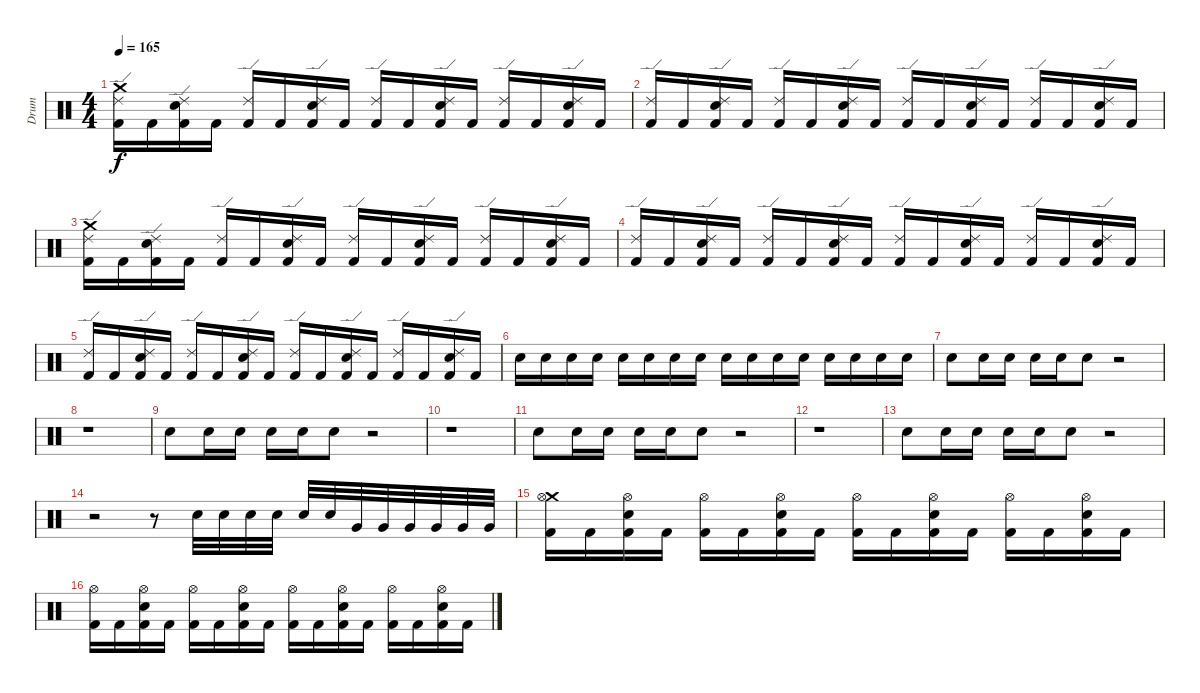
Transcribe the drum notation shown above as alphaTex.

\track ("Drum" "Drum") {instrument percussion}
\staff {score}
\articulation defaults
\ts (4 4)
\tempo 165
\clef neutral
\ks c
("Crash medium (hit)" "Ride (edge) 2" "Kick (hit) 2").16{dy f} "Kick (hit) 2".16 ("Electric Snare (hit)" "Ride (edge) 2" "Kick (hit) 2").16 "Kick (hit) 2".16 ("Ride (edge) 2" "Kick (hit) 2").16 "Kick (hit) 2".16 ("Electric Snare (hit)" "Ride (edge) 2" "Kick (hit) 2").16 "Kick (hit) 2".16 ("Ride (edge) 2" "Kick (hit) 2").16 "Kick (hit) 2".16 ("Electric Snare (hit)" "Ride (edge) 2" "Kick (hit) 2").16 "Kick (hit) 2".16 ("Ride (edge) 2" "Kick (hit) 2").16 "Kick (hit) 2".16 ("Electric Snare (hit)" "Ride (edge) 2" "Kick (hit) 2").16 "Kick (hit) 2".16 |
("Ride (edge) 2" "Kick (hit) 2").16 "Kick (hit) 2".16 ("Electric Snare (hit)" "Ride (edge) 2" "Kick (hit) 2").16 "Kick (hit) 2".16 ("Ride (edge) 2" "Kick (hit) 2").16 "Kick (hit) 2".16 ("Electric Snare (hit)" "Ride (edge) 2" "Kick (hit) 2").16 "Kick (hit) 2".16 ("Ride (edge) 2" "Kick (hit) 2").16 "Kick (hit) 2".16 ("Electric Snare (hit)" "Ride (edge) 2" "Kick (hit) 2").16 "Kick (hit) 2".16 ("Ride (edge) 2" "Kick (hit) 2").16 "Kick (hit) 2".16 ("Electric Snare (hit)" "Ride (edge) 2" "Kick (hit) 2").16 "Kick (hit) 2".16 |
("Crash medium (hit)" "Ride (edge) 2" "Kick (hit) 2").16 "Kick (hit) 2".16 ("Electric Snare (hit)" "Ride (edge) 2" "Kick (hit) 2").16 "Kick (hit) 2".16 ("Ride (edge) 2" "Kick (hit) 2").16 "Kick (hit) 2".16 ("Electric Snare (hit)" "Ride (edge) 2" "Kick (hit) 2").16 "Kick (hit) 2".16 ("Ride (edge) 2" "Kick (hit) 2").16 "Kick (hit) 2".16 ("Electric Snare (hit)" "Ride (edge) 2" "Kick (hit) 2").16 "Kick (hit) 2".16 ("Ride (edge) 2" "Kick (hit) 2").16 "Kick (hit) 2".16 ("Electric Snare (hit)" "Ride (edge) 2" "Kick (hit) 2").16 "Kick (hit) 2".16 |
("Ride (edge) 2" "Kick (hit) 2").16 "Kick (hit) 2".16 ("Electric Snare (hit)" "Ride (edge) 2" "Kick (hit) 2").16 "Kick (hit) 2".16 ("Ride (edge) 2" "Kick (hit) 2").16 "Kick (hit) 2".16 ("Electric Snare (hit)" "Ride (edge) 2" "Kick (hit) 2").16 "Kick (hit) 2".16 ("Ride (edge) 2" "Kick (hit) 2").16 "Kick (hit) 2".16 ("Electric Snare (hit)" "Ride (edge) 2" "Kick (hit) 2").16 "Kick (hit) 2".16 ("Ride (edge) 2" "Kick (hit) 2").16 "Kick (hit) 2".16 ("Electric Snare (hit)" "Ride (edge) 2" "Kick (hit) 2").16 "Kick (hit) 2".16 |
("Ride (edge) 2" "Kick (hit) 2").16 "Kick (hit) 2".16 ("Electric Snare (hit)" "Ride (edge) 2" "Kick (hit) 2").16 "Kick (hit) 2".16 ("Ride (edge) 2" "Kick (hit) 2").16 "Kick (hit) 2".16 ("Electric Snare (hit)" "Ride (edge) 2" "Kick (hit) 2").16 "Kick (hit) 2".16 ("Ride (edge) 2" "Kick (hit) 2").16 "Kick (hit) 2".16 ("Electric Snare (hit)" "Ride (edge) 2" "Kick (hit) 2").16 "Kick (hit) 2".16 ("Ride (edge) 2" "Kick (hit) 2").16 "Kick (hit) 2".16 ("Electric Snare (hit)" "Ride (edge) 2" "Kick (hit) 2").16 "Kick (hit) 2".16 |
"Electric Snare (hit)".16 "Electric Snare (hit)".16 "Electric Snare (hit)".16 "Electric Snare (hit)".16 "Electric Snare (hit)".16 "Electric Snare (hit)".16 "Electric Snare (hit)".16 "Electric Snare (hit)".16 "Electric Snare (hit)".16 "Electric Snare (hit)".16 "Electric Snare (hit)".16 "Electric Snare (hit)".16 "Electric Snare (hit)".16 "Electric Snare (hit)".16 "Electric Snare (hit)".16 "Electric Snare (hit)".16 |
"Electric Snare (hit)".8{volume 10} "Electric Snare (hit)".16 "Electric Snare (hit)".16 "Electric Snare (hit)".16 "Electric Snare (hit)".16 "Electric Snare (hit)".8 r.2 |
r.1 |
"Electric Snare (hit)".8{volume 10} "Electric Snare (hit)".16 "Electric Snare (hit)".16 "Electric Snare (hit)".16 "Electric Snare (hit)".16 "Electric Snare (hit)".8 r.2 |
r.1 |
"Electric Snare (hit)".8{volume 10} "Electric Snare (hit)".16 "Electric Snare (hit)".16 "Electric Snare (hit)".16 "Electric Snare (hit)".16 "Electric Snare (hit)".8 r.2 |
r.1 |
"Electric Snare (hit)".8{volume 10} "Electric Snare (hit)".16 "Electric Snare (hit)".16 "Electric Snare (hit)".16 "Electric Snare (hit)".16 "Electric Snare (hit)".8 r.2 |
r.2 r.8 "Electric Snare (hit)".32 "Electric Snare (hit)".32 "Electric Snare (hit)".32 "Electric Snare (hit)".32 "Electric Snare (hit)".32 "Electric Snare (hit)".32 "Very Low Tom (hit)".32 "Very Low Tom (hit)".32 "Very Low Tom (hit)".32 "Very Low Tom (hit)".32 "Very Low Tom (hit)".32 "Very Low Tom (hit)".32 |
("Crash medium (hit)" "Hi-Hat (open)" "Kick (hit) 2").16 "Kick (hit) 2".16 ("Electric Snare (hit)" "Hi-Hat (open)" "Kick (hit) 2").16 "Kick (hit) 2".16 ("Hi-Hat (open)" "Kick (hit) 2").16 "Kick (hit) 2".16 ("Electric Snare (hit)" "Hi-Hat (open)" "Kick (hit) 2").16 "Kick (hit) 2".16 ("Hi-Hat (open)" "Kick (hit) 2").16 "Kick (hit) 2".16 ("Electric Snare (hit)" "Hi-Hat (open)" "Kick (hit) 2").16 "Kick (hit) 2".16 ("Hi-Hat (open)" "Kick (hit) 2").16 "Kick (hit) 2".16 ("Electric Snare (hit)" "Hi-Hat (open)" "Kick (hit) 2").16 "Kick (hit) 2".16 |
("Hi-Hat (open)" "Kick (hit) 2").16 "Kick (hit) 2".16 ("Electric Snare (hit)" "Hi-Hat (open)" "Kick (hit) 2").16 "Kick (hit) 2".16 ("Hi-Hat (open)" "Kick (hit) 2").16 "Kick (hit) 2".16 ("Electric Snare (hit)" "Hi-Hat (open)" "Kick (hit) 2").16 "Kick (hit) 2".16 ("Hi-Hat (open)" "Kick (hit) 2").16 "Kick (hit) 2".16 ("Electric Snare (hit)" "Hi-Hat (open)" "Kick (hit) 2").16 "Kick (hit) 2".16 ("Hi-Hat (open)" "Kick (hit) 2").16 "Kick (hit) 2".16 ("Electric Snare (hit)" "Hi-Hat (open)" "Kick (hit) 2").16 "Kick (hit) 2".16
